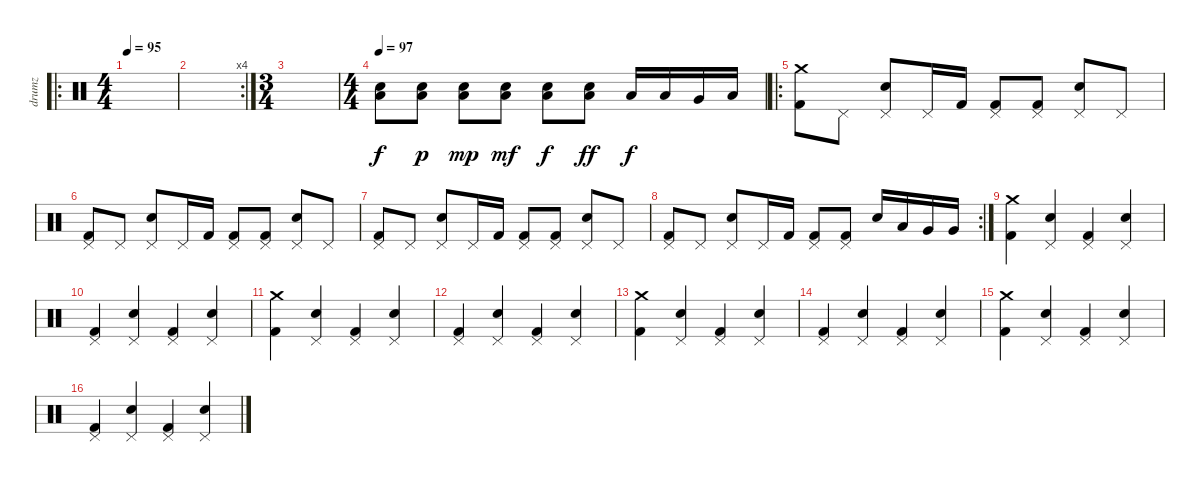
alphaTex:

\track ("drumz" "drumz") {instrument percussion}
\staff {score}
\articulation defaults
\ro
\ts (4 4)
\tempo 95
\clef neutral
\ks c
|
\rc 4
|
\ts (3 4)
|
\ts (4 4)
\tempo 97
("Electric Snare (hit)" "Low Floor Tom (hit)").8 ("Electric Snare (hit)" "Low Floor Tom (hit)").8{dy p} ("Electric Snare (hit)" "Low Floor Tom (hit)").8{dy mp} ("Electric Snare (hit)" "Low Floor Tom (hit)").8{dy mf} ("Electric Snare (hit)" "Low Floor Tom (hit)").8{dy f} ("Electric Snare (hit)" "Low Floor Tom (hit)").8{dy ff} "Low Tom (hit)".16{dy f} "Low Tom (hit)".16 "Very Low Tom (hit)".16 "Low Floor Tom (hit)".16 |
\ro
("Crash medium (hit)" "Kick (hit) 2").8 "Pedal Hi-Hat (hit)".8 ("Pedal Hi-Hat (hit)" "Snare (hit) 2").8 "Pedal Hi-Hat (hit)".16 "Kick (hit) 2".16 ("Pedal Hi-Hat (hit)" "Kick (hit) 2").8 ("Pedal Hi-Hat (hit)" "Kick (hit) 2").8 ("Pedal Hi-Hat (hit)" "Snare (hit) 2").8 "Pedal Hi-Hat (hit)".8 |
("Pedal Hi-Hat (hit)" "Kick (hit) 2").8 "Pedal Hi-Hat (hit)".8 ("Pedal Hi-Hat (hit)" "Snare (hit) 2").8 "Pedal Hi-Hat (hit)".16 "Kick (hit) 2".16 ("Pedal Hi-Hat (hit)" "Kick (hit) 2").8 ("Pedal Hi-Hat (hit)" "Kick (hit) 2").8 ("Pedal Hi-Hat (hit)" "Snare (hit) 2").8 "Pedal Hi-Hat (hit)".8 |
("Pedal Hi-Hat (hit)" "Kick (hit) 2").8 "Pedal Hi-Hat (hit)".8 ("Pedal Hi-Hat (hit)" "Snare (hit) 2").8 "Pedal Hi-Hat (hit)".16 "Kick (hit) 2".16 ("Pedal Hi-Hat (hit)" "Kick (hit) 2").8 ("Pedal Hi-Hat (hit)" "Kick (hit) 2").8 ("Pedal Hi-Hat (hit)" "Snare (hit) 2").8 "Pedal Hi-Hat (hit)".8 |
\rc 2
("Pedal Hi-Hat (hit)" "Kick (hit) 2").8 "Pedal Hi-Hat (hit)".8 ("Pedal Hi-Hat (hit)" "Snare (hit) 2").8 "Pedal Hi-Hat (hit)".16 "Kick (hit) 2".16 ("Pedal Hi-Hat (hit)" "Kick (hit) 2").8 ("Pedal Hi-Hat (hit)" "Kick (hit) 2").8 "Snare (hit) 2".16 "Low Tom (hit)".16 "Very Low Tom (hit)".16 "Very Low Tom (hit)".16 |
("Crash medium (hit)" "Kick (hit) 2").4 ("Pedal Hi-Hat (hit)" "Snare (hit) 2").4 ("Pedal Hi-Hat (hit)" "Kick (hit) 2").4 ("Pedal Hi-Hat (hit)" "Snare (hit) 2").4 |
("Pedal Hi-Hat (hit)" "Kick (hit) 2").4 ("Pedal Hi-Hat (hit)" "Snare (hit) 2").4 ("Pedal Hi-Hat (hit)" "Kick (hit) 2").4 ("Pedal Hi-Hat (hit)" "Snare (hit) 2").4 |
("Crash medium (hit)" "Kick (hit) 2").4 ("Pedal Hi-Hat (hit)" "Snare (hit) 2").4 ("Pedal Hi-Hat (hit)" "Kick (hit) 2").4 ("Pedal Hi-Hat (hit)" "Snare (hit) 2").4 |
("Pedal Hi-Hat (hit)" "Kick (hit) 2").4 ("Pedal Hi-Hat (hit)" "Snare (hit) 2").4 ("Pedal Hi-Hat (hit)" "Kick (hit) 2").4 ("Pedal Hi-Hat (hit)" "Snare (hit) 2").4 |
("Crash medium (hit)" "Kick (hit) 2").4 ("Pedal Hi-Hat (hit)" "Snare (hit) 2").4 ("Pedal Hi-Hat (hit)" "Kick (hit) 2").4 ("Pedal Hi-Hat (hit)" "Snare (hit) 2").4 |
("Pedal Hi-Hat (hit)" "Kick (hit) 2").4 ("Pedal Hi-Hat (hit)" "Snare (hit) 2").4 ("Pedal Hi-Hat (hit)" "Kick (hit) 2").4 ("Pedal Hi-Hat (hit)" "Snare (hit) 2").4 |
("Crash medium (hit)" "Kick (hit) 2").4 ("Pedal Hi-Hat (hit)" "Snare (hit) 2").4 ("Pedal Hi-Hat (hit)" "Kick (hit) 2").4 ("Pedal Hi-Hat (hit)" "Snare (hit) 2").4 |
("Pedal Hi-Hat (hit)" "Kick (hit) 2").4 ("Pedal Hi-Hat (hit)" "Snare (hit) 2").4 ("Pedal Hi-Hat (hit)" "Kick (hit) 2").4 ("Pedal Hi-Hat (hit)" "Snare (hit) 2").4
